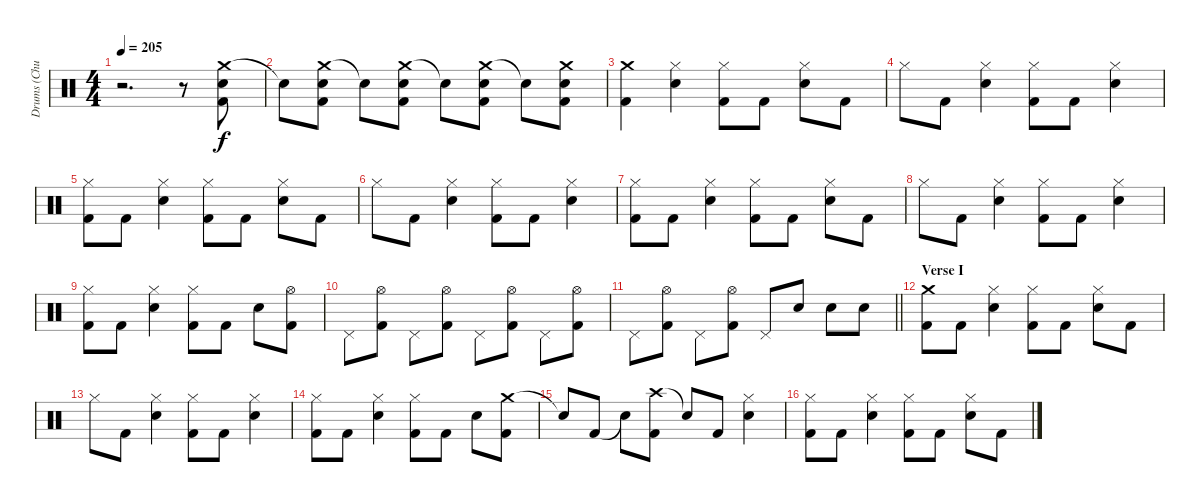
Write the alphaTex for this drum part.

\track ("Drums (Chuck Behler)" "Drums (Chu") {instrument percussion}
\staff {score}
\articulation defaults
\ts (4 4)
\tempo 205
\clef neutral
\ks c
r.2{d dy f} r.8 ("Crash medium (hit)" "Electric Snare (hit)" "Kick (hit) 2").8 |
"Snare (hit)"{t}.8 ("Crash medium (hit)" "Electric Snare (hit)" "Kick (hit) 2").8 "Snare (hit)"{t}.8 ("Crash medium (hit)" "Electric Snare (hit)" "Kick (hit) 2").8 "Snare (hit)"{t}.8 ("Crash medium (hit)" "Electric Snare (hit)" "Kick (hit) 2").8 "Snare (hit)"{t}.8 ("Crash medium (hit)" "Electric Snare (hit)" "Kick (hit) 2").8 |
("Crash medium (hit)" "Kick (hit) 2").4 ("Hi-Hat (closed)" "Electric Snare (hit)").4 ("Hi-Hat (closed)" "Kick (hit) 2").8 "Kick (hit) 2".8 ("Hi-Hat (closed)" "Electric Snare (hit)").8 "Kick (hit) 2".8 |
"Hi-Hat (closed)".8 "Kick (hit) 2".8 ("Hi-Hat (closed)" "Electric Snare (hit)").4 ("Hi-Hat (closed)" "Kick (hit) 2").8 "Kick (hit) 2".8 ("Hi-Hat (closed)" "Electric Snare (hit)").4 |
("Hi-Hat (closed)" "Kick (hit) 2").8 "Kick (hit) 2".8 ("Hi-Hat (closed)" "Electric Snare (hit)").4 ("Hi-Hat (closed)" "Kick (hit) 2").8 "Kick (hit) 2".8 ("Hi-Hat (closed)" "Electric Snare (hit)").8 "Kick (hit) 2".8 |
"Hi-Hat (closed)".8 "Kick (hit) 2".8 ("Hi-Hat (closed)" "Electric Snare (hit)").4 ("Hi-Hat (closed)" "Kick (hit) 2").8 "Kick (hit) 2".8 ("Hi-Hat (closed)" "Electric Snare (hit)").4 |
("Hi-Hat (closed)" "Kick (hit) 2").8 "Kick (hit) 2".8 ("Hi-Hat (closed)" "Electric Snare (hit)").4 ("Hi-Hat (closed)" "Kick (hit) 2").8 "Kick (hit) 2".8 ("Hi-Hat (closed)" "Electric Snare (hit)").8 "Kick (hit) 2".8 |
"Hi-Hat (closed)".8 "Kick (hit) 2".8 ("Hi-Hat (closed)" "Electric Snare (hit)").4 ("Hi-Hat (closed)" "Kick (hit) 2").8 "Kick (hit) 2".8 ("Hi-Hat (closed)" "Electric Snare (hit)").4 |
("Hi-Hat (closed)" "Kick (hit) 2").8 "Kick (hit) 2".8 ("Hi-Hat (closed)" "Electric Snare (hit)").4 ("Hi-Hat (closed)" "Kick (hit) 2").8 "Kick (hit) 2".8 "Electric Snare (hit)".8 ("Hi-Hat (open)" "Kick (hit) 2").8 |
"Pedal Hi-Hat (hit)".8 ("Hi-Hat (open)" "Kick (hit) 2").8 "Pedal Hi-Hat (hit)".8 ("Hi-Hat (open)" "Kick (hit) 2").8 "Pedal Hi-Hat (hit)".8 ("Hi-Hat (open)" "Kick (hit) 2").8 "Pedal Hi-Hat (hit)".8 ("Hi-Hat (open)" "Kick (hit) 2").8 |
\barLineRight lightlight "Pedal Hi-Hat (hit)".8
("Hi-Hat (open)" "Kick (hit) 2").8 "Pedal Hi-Hat (hit)".8 ("Hi-Hat (open)" "Kick (hit) 2").8 "Pedal Hi-Hat (hit)".8 "Electric Snare (hit)".8 "Electric Snare (hit)".8 "Electric Snare (hit)".8 |
\section ("" "Verse I")
("Crash medium (hit)" "Kick (hit) 2").8 "Kick (hit) 2".8 ("Hi-Hat (closed)" "Electric Snare (hit)").4 ("Hi-Hat (closed)" "Kick (hit) 2").8 "Kick (hit) 2".8 ("Hi-Hat (closed)" "Electric Snare (hit)").8 "Kick (hit) 2".8 |
"Hi-Hat (closed)".8 "Kick (hit) 2".8 ("Hi-Hat (closed)" "Electric Snare (hit)").4 ("Hi-Hat (closed)" "Kick (hit) 2").8 "Kick (hit) 2".8 ("Hi-Hat (closed)" "Electric Snare (hit)").4 |
("Hi-Hat (closed)" "Kick (hit) 2").8 "Kick (hit) 2".8 ("Hi-Hat (closed)" "Electric Snare (hit)").4 ("Hi-Hat (closed)" "Kick (hit) 2").8 "Kick (hit) 2".8 "Electric Snare (hit)".8 ("Crash medium (hit)" "Kick (hit) 2").8 |
"Snare (hit)"{t}.8 "Kick (hit) 2".8 "Snare (hit)"{t}.8 ("Crash high (hit)" "Kick (hit) 2").8 "Snare (hit)"{t}.8 "Kick (hit) 2".8 ("Hi-Hat (closed)" "Electric Snare (hit)").4 |
("Hi-Hat (closed)" "Kick (hit) 2").8 "Kick (hit) 2".8 ("Hi-Hat (closed)" "Electric Snare (hit)").4 ("Hi-Hat (closed)" "Kick (hit) 2").8 "Kick (hit) 2".8 ("Hi-Hat (closed)" "Electric Snare (hit)").8 "Kick (hit) 2".8
